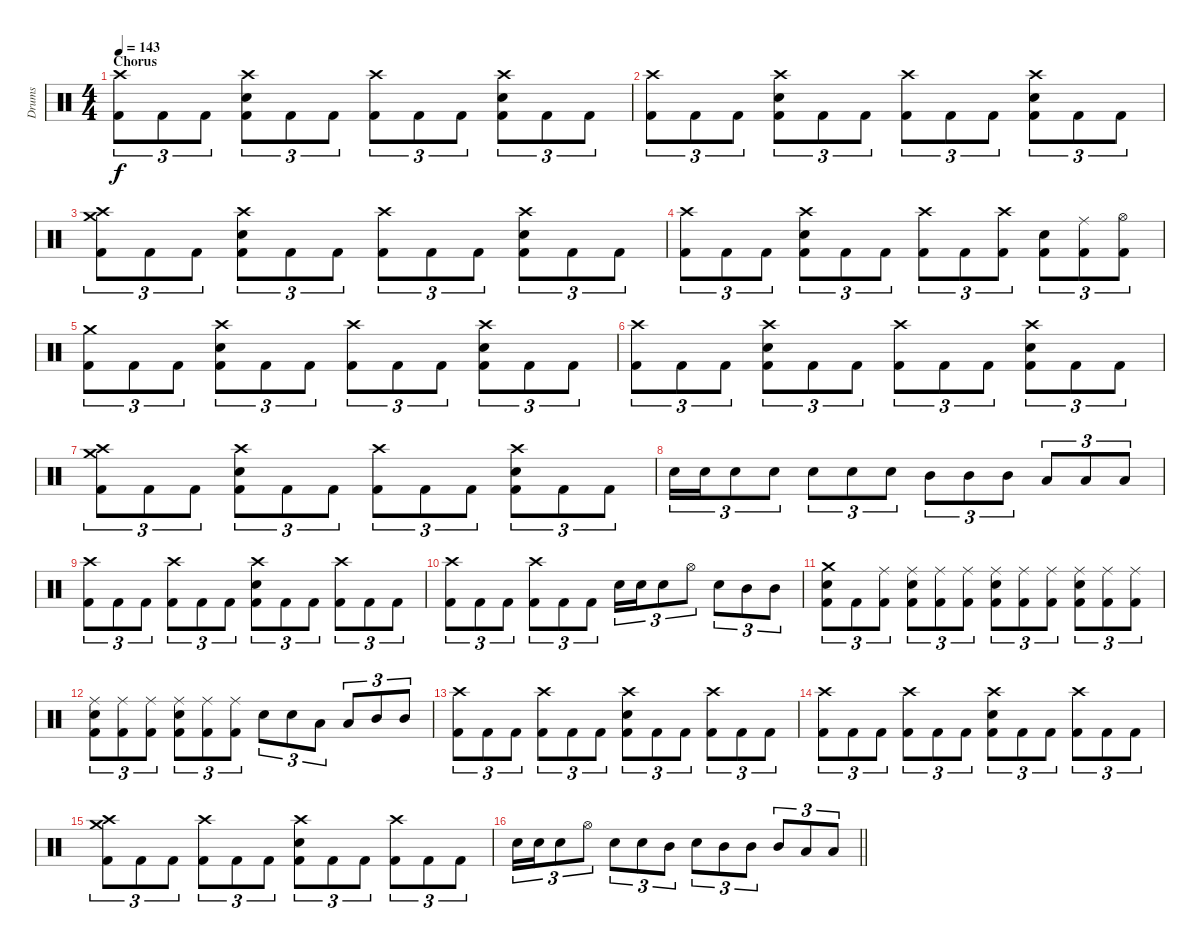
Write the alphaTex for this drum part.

\track ("Drums" "Drums") {instrument percussion}
\staff {score}
\articulation defaults
\ts (4 4)
\section ("" "Chorus")
\tempo 143
\clef neutral
\ks c
("Crash high (hit)" "Kick (hit) 2").8{tu (3 2) dy f} "Kick (hit) 2".8{tu (3 2)} "Kick (hit) 2".8{tu (3 2)} ("Crash high (hit)" "Snare (hit) 2" "Kick (hit) 2").8{tu (3 2)} "Kick (hit) 2".8{tu (3 2)} "Kick (hit) 2".8{tu (3 2)} ("Crash high (hit)" "Kick (hit) 2").8{tu (3 2)} "Kick (hit) 2".8{tu (3 2)} "Kick (hit) 2".8{tu (3 2)} ("Crash high (hit)" "Snare (hit) 2" "Kick (hit) 2").8{tu (3 2)} "Kick (hit) 2".8{tu (3 2)} "Kick (hit) 2".8{tu (3 2)} |
("Crash high (hit)" "Kick (hit) 2").8{tu (3 2)} "Kick (hit) 2".8{tu (3 2)} "Kick (hit) 2".8{tu (3 2)} ("Crash high (hit)" "Snare (hit) 2" "Kick (hit) 2").8{tu (3 2)} "Kick (hit) 2".8{tu (3 2)} "Kick (hit) 2".8{tu (3 2)} ("Crash high (hit)" "Kick (hit) 2").8{tu (3 2)} "Kick (hit) 2".8{tu (3 2)} "Kick (hit) 2".8{tu (3 2)} ("Crash high (hit)" "Snare (hit) 2" "Kick (hit) 2").8{tu (3 2)} "Kick (hit) 2".8{tu (3 2)} "Kick (hit) 2".8{tu (3 2)} |
("Crash medium (hit)" "Crash high (hit)" "Kick (hit) 2").8{tu (3 2)} "Kick (hit) 2".8{tu (3 2)} "Kick (hit) 2".8{tu (3 2)} ("Crash high (hit)" "Snare (hit) 2" "Kick (hit) 2").8{tu (3 2)} "Kick (hit) 2".8{tu (3 2)} "Kick (hit) 2".8{tu (3 2)} ("Crash high (hit)" "Kick (hit) 2").8{tu (3 2)} "Kick (hit) 2".8{tu (3 2)} "Kick (hit) 2".8{tu (3 2)} ("Crash high (hit)" "Snare (hit) 2" "Kick (hit) 2").8{tu (3 2)} "Kick (hit) 2".8{tu (3 2)} "Kick (hit) 2".8{tu (3 2)} |
("Crash high (hit)" "Kick (hit) 2").8{tu (3 2)} "Kick (hit) 2".8{tu (3 2)} "Kick (hit) 2".8{tu (3 2)} ("Crash high (hit)" "Snare (hit) 2" "Kick (hit) 2").8{tu (3 2)} "Kick (hit) 2".8{tu (3 2)} "Kick (hit) 2".8{tu (3 2)} ("Crash high (hit)" "Kick (hit) 2").8{tu (3 2)} "Kick (hit) 2".8{tu (3 2)} ("Crash high (hit)" "Kick (hit) 2").8{tu (3 2)} ("Snare (hit) 2" "Kick (hit) 2").8{tu (3 2)} ("Ride (middle)" "Kick (hit) 2").8{tu (3 2)} ("Hi-Hat (open)" "Kick (hit) 2").8{tu (3 2)} |
("Crash medium (hit)" "Kick (hit) 2").8{tu (3 2)} "Kick (hit) 2".8{tu (3 2)} "Kick (hit) 2".8{tu (3 2)} ("Crash high (hit)" "Snare (hit) 2" "Kick (hit) 2").8{tu (3 2)} "Kick (hit) 2".8{tu (3 2)} "Kick (hit) 2".8{tu (3 2)} ("Crash high (hit)" "Kick (hit) 2").8{tu (3 2)} "Kick (hit) 2".8{tu (3 2)} "Kick (hit) 2".8{tu (3 2)} ("Crash high (hit)" "Snare (hit) 2" "Kick (hit) 2").8{tu (3 2)} "Kick (hit) 2".8{tu (3 2)} "Kick (hit) 2".8{tu (3 2)} |
("Crash high (hit)" "Kick (hit) 2").8{tu (3 2)} "Kick (hit) 2".8{tu (3 2)} "Kick (hit) 2".8{tu (3 2)} ("Crash high (hit)" "Snare (hit) 2" "Kick (hit) 2").8{tu (3 2)} "Kick (hit) 2".8{tu (3 2)} "Kick (hit) 2".8{tu (3 2)} ("Crash high (hit)" "Kick (hit) 2").8{tu (3 2)} "Kick (hit) 2".8{tu (3 2)} "Kick (hit) 2".8{tu (3 2)} ("Crash high (hit)" "Snare (hit) 2" "Kick (hit) 2").8{tu (3 2)} "Kick (hit) 2".8{tu (3 2)} "Kick (hit) 2".8{tu (3 2)} |
("Crash medium (hit)" "Crash high (hit)" "Kick (hit) 2").8{tu (3 2)} "Kick (hit) 2".8{tu (3 2)} "Kick (hit) 2".8{tu (3 2)} ("Crash high (hit)" "Snare (hit) 2" "Kick (hit) 2").8{tu (3 2)} "Kick (hit) 2".8{tu (3 2)} "Kick (hit) 2".8{tu (3 2)} ("Crash high (hit)" "Kick (hit) 2").8{tu (3 2)} "Kick (hit) 2".8{tu (3 2)} "Kick (hit) 2".8{tu (3 2)} ("Crash high (hit)" "Snare (hit) 2" "Kick (hit) 2").8{tu (3 2)} "Kick (hit) 2".8{tu (3 2)} "Kick (hit) 2".8{tu (3 2)} |
"Snare (hit) 2".16{tu (3 2)} "Snare (hit) 2".16{tu (3 2)} "Snare (hit) 2".8{tu (3 2)} "Snare (hit) 2".8{tu (3 2)} "Snare (hit) 2".8{tu (3 2)} "Snare (hit) 2".8{tu (3 2)} "Snare (hit) 2".8{tu (3 2)} "Mid Tom (hit)".8{tu (3 2)} "Mid Tom (hit)".8{tu (3 2)} "Mid Tom (hit)".8{tu (3 2)} "Low Tom (hit)".8{tu (3 2)} "Low Tom (hit)".8{tu (3 2)} "Low Tom (hit)".8{tu (3 2)} |
("Crash high (hit)" "Kick (hit) 2").8{tu (3 2)} "Kick (hit) 2".8{tu (3 2)} "Kick (hit) 2".8{tu (3 2)} ("Crash high (hit)" "Kick (hit) 2").8{tu (3 2)} "Kick (hit) 2".8{tu (3 2)} "Kick (hit) 2".8{tu (3 2)} ("Crash high (hit)" "Snare (hit) 2" "Kick (hit) 2").8{tu (3 2)} "Kick (hit) 2".8{tu (3 2)} "Kick (hit) 2".8{tu (3 2)} ("Crash high (hit)" "Kick (hit) 2").8{tu (3 2)} "Kick (hit) 2".8{tu (3 2)} "Kick (hit) 2".8{tu (3 2)} |
("Crash high (hit)" "Kick (hit) 2").8{tu (3 2)} "Kick (hit) 2".8{tu (3 2)} "Kick (hit) 2".8{tu (3 2)} ("Crash high (hit)" "Kick (hit) 2").8{tu (3 2)} "Kick (hit) 2".8{tu (3 2)} "Kick (hit) 2".8{tu (3 2)} "Snare (hit) 2".16{tu (3 2)} "Snare (hit) 2".16{tu (3 2)} "Snare (hit) 2".8{tu (3 2)} "Hi-Hat (open)".8{tu (3 2)} "Snare (hit) 2".8{tu (3 2)} "Mid Tom (hit)".8{tu (3 2)} "Mid Tom (hit)".8{tu (3 2)} |
("Crash medium (hit)" "Snare (hit) 2" "Kick (hit) 2").8{tu (3 2)} "Kick (hit) 2".8{tu (3 2)} ("Ride (middle)" "Kick (hit) 2").8{tu (3 2)} ("Ride (middle)" "Snare (hit) 2" "Kick (hit) 2").8{tu (3 2)} ("Ride (middle)" "Kick (hit) 2").8{tu (3 2)} ("Ride (middle)" "Kick (hit) 2").8{tu (3 2)} ("Ride (middle)" "Snare (hit) 2" "Kick (hit) 2").8{tu (3 2)} ("Ride (middle)" "Kick (hit) 2").8{tu (3 2)} ("Ride (middle)" "Kick (hit) 2").8{tu (3 2)} ("Ride (middle)" "Snare (hit) 2" "Kick (hit) 2").8{tu (3 2)} ("Ride (middle)" "Kick (hit) 2").8{tu (3 2)} ("Ride (middle)" "Kick (hit) 2").8{tu (3 2)} |
("Ride (middle)" "Snare (hit) 2" "Kick (hit) 2").8{tu (3 2)} ("Ride (middle)" "Kick (hit) 2").8{tu (3 2)} ("Ride (middle)" "Kick (hit) 2").8{tu (3 2)} ("Ride (middle)" "Snare (hit) 2" "Kick (hit) 2").8{tu (3 2)} ("Ride (middle)" "Kick (hit) 2").8{tu (3 2)} ("Ride (middle)" "Kick (hit) 2").8{tu (3 2)} "Snare (hit) 2".8{tu (3 2)} "Snare (hit) 2".8{tu (3 2)} "Low Tom (hit)".8{tu (3 2)} "Low Tom (hit)".8{tu (3 2)} "Mid Tom (hit)".8{tu (3 2)} "Mid Tom (hit)".8{tu (3 2)} |
("Crash high (hit)" "Kick (hit) 2").8{tu (3 2)} "Kick (hit) 2".8{tu (3 2)} "Kick (hit) 2".8{tu (3 2)} ("Crash high (hit)" "Kick (hit) 2").8{tu (3 2)} "Kick (hit) 2".8{tu (3 2)} "Kick (hit) 2".8{tu (3 2)} ("Crash high (hit)" "Snare (hit) 2" "Kick (hit) 2").8{tu (3 2)} "Kick (hit) 2".8{tu (3 2)} "Kick (hit) 2".8{tu (3 2)} ("Crash high (hit)" "Kick (hit) 2").8{tu (3 2)} "Kick (hit) 2".8{tu (3 2)} "Kick (hit) 2".8{tu (3 2)} |
("Crash high (hit)" "Kick (hit) 2").8{tu (3 2)} "Kick (hit) 2".8{tu (3 2)} "Kick (hit) 2".8{tu (3 2)} ("Crash high (hit)" "Kick (hit) 2").8{tu (3 2)} "Kick (hit) 2".8{tu (3 2)} "Kick (hit) 2".8{tu (3 2)} ("Crash high (hit)" "Snare (hit) 2" "Kick (hit) 2").8{tu (3 2)} "Kick (hit) 2".8{tu (3 2)} "Kick (hit) 2".8{tu (3 2)} ("Crash high (hit)" "Kick (hit) 2").8{tu (3 2)} "Kick (hit) 2".8{tu (3 2)} "Kick (hit) 2".8{tu (3 2)} |
("Crash medium (hit)" "Crash high (hit)" "Kick (hit) 2").8{tu (3 2)} "Kick (hit) 2".8{tu (3 2)} "Kick (hit) 2".8{tu (3 2)} ("Crash high (hit)" "Kick (hit) 2").8{tu (3 2)} "Kick (hit) 2".8{tu (3 2)} "Kick (hit) 2".8{tu (3 2)} ("Crash high (hit)" "Snare (hit) 2" "Kick (hit) 2").8{tu (3 2)} "Kick (hit) 2".8{tu (3 2)} "Kick (hit) 2".8{tu (3 2)} ("Crash high (hit)" "Kick (hit) 2").8{tu (3 2)} "Kick (hit) 2".8{tu (3 2)} "Kick (hit) 2".8{tu (3 2)} |
\barLineRight lightlight "Snare (hit) 2".16{tu (3 2)} "Snare (hit) 2".16{tu (3 2)} "Snare (hit) 2".8{tu (3 2)} "Hi-Hat (open)".8{tu (3 2)} "Snare (hit) 2".8{tu (3 2)} "Snare (hit) 2".8{tu (3 2)} "Mid Tom (hit)".8{tu (3 2)} "Snare (hit) 2".8{tu (3 2)} "Mid Tom (hit)".8{tu (3 2)} "Mid Tom (hit)".8{tu (3 2)} "Mid Tom (hit)".8{tu (3 2)} "Low Tom (hit)".8{tu (3 2)} "Low Tom (hit)".8{tu (3 2)}
